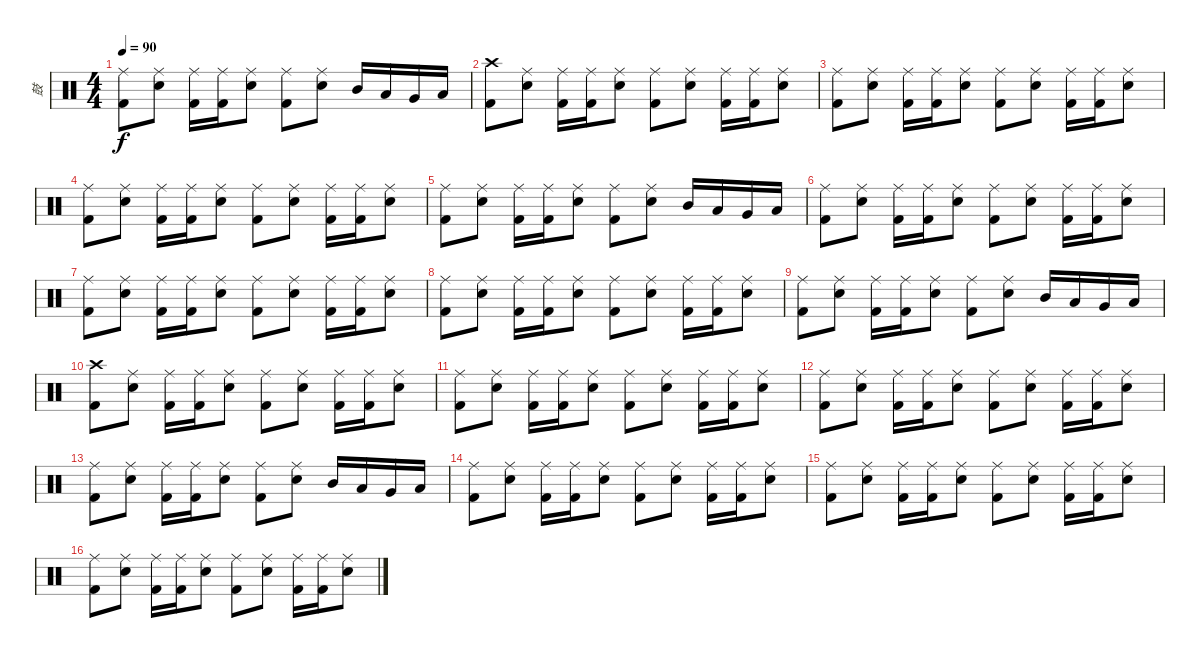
\track ("鼓" "鼓") {instrument percussion}
\staff {score}
\articulation defaults
\ts (4 4)
\tempo 90
\clef neutral
\ks c
("Kick (hit) 2" "Ride (middle)").8{dy f} ("Electric Snare (hit)" "Ride (middle)").8 ("Kick (hit) 2" "Ride (middle)").16 ("Kick (hit) 2" "Ride (middle)").16 ("Electric Snare (hit)" "Ride (middle)").8 ("Kick (hit) 2" "Ride (middle)").8 ("Electric Snare (hit)" "Ride (middle)").8 "Mid Tom (hit)".16 "Low Tom (hit)".16 "Very Low Tom (hit)".16 "Low Floor Tom (hit)".16 |
("Kick (hit) 2" "Crash high (hit)").8 ("Electric Snare (hit)" "Ride (middle)").8 ("Kick (hit) 2" "Ride (middle)").16 ("Kick (hit) 2" "Ride (middle)").16 ("Electric Snare (hit)" "Ride (middle)").8 ("Kick (hit) 2" "Ride (middle)").8 ("Electric Snare (hit)" "Ride (middle)").8 ("Kick (hit) 2" "Ride (middle)").16 ("Kick (hit) 2" "Ride (middle)").16 ("Electric Snare (hit)" "Ride (middle)").8 |
("Kick (hit) 2" "Ride (middle)").8 ("Electric Snare (hit)" "Ride (middle)").8 ("Kick (hit) 2" "Ride (middle)").16 ("Kick (hit) 2" "Ride (middle)").16 ("Electric Snare (hit)" "Ride (middle)").8 ("Kick (hit) 2" "Ride (middle)").8 ("Electric Snare (hit)" "Ride (middle)").8 ("Kick (hit) 2" "Ride (middle)").16 ("Kick (hit) 2" "Ride (middle)").16 ("Electric Snare (hit)" "Ride (middle)").8 |
("Kick (hit) 2" "Ride (middle)").8 ("Electric Snare (hit)" "Ride (middle)").8 ("Kick (hit) 2" "Ride (middle)").16 ("Kick (hit) 2" "Ride (middle)").16 ("Electric Snare (hit)" "Ride (middle)").8 ("Kick (hit) 2" "Ride (middle)").8 ("Electric Snare (hit)" "Ride (middle)").8 ("Kick (hit) 2" "Ride (middle)").16 ("Kick (hit) 2" "Ride (middle)").16 ("Electric Snare (hit)" "Ride (middle)").8 |
("Kick (hit) 2" "Ride (middle)").8 ("Electric Snare (hit)" "Ride (middle)").8 ("Kick (hit) 2" "Ride (middle)").16 ("Kick (hit) 2" "Ride (middle)").16 ("Electric Snare (hit)" "Ride (middle)").8 ("Kick (hit) 2" "Ride (middle)").8 ("Electric Snare (hit)" "Ride (middle)").8 "Mid Tom (hit)".16 "Low Tom (hit)".16 "Very Low Tom (hit)".16 "Low Floor Tom (hit)".16 |
("Kick (hit) 2" "Ride (middle)").8 ("Electric Snare (hit)" "Ride (middle)").8 ("Kick (hit) 2" "Ride (middle)").16 ("Kick (hit) 2" "Ride (middle)").16 ("Electric Snare (hit)" "Ride (middle)").8 ("Kick (hit) 2" "Ride (middle)").8 ("Electric Snare (hit)" "Ride (middle)").8 ("Kick (hit) 2" "Ride (middle)").16 ("Kick (hit) 2" "Ride (middle)").16 ("Electric Snare (hit)" "Ride (middle)").8 |
("Kick (hit) 2" "Ride (middle)").8 ("Electric Snare (hit)" "Ride (middle)").8 ("Kick (hit) 2" "Ride (middle)").16 ("Kick (hit) 2" "Ride (middle)").16 ("Electric Snare (hit)" "Ride (middle)").8 ("Kick (hit) 2" "Ride (middle)").8 ("Electric Snare (hit)" "Ride (middle)").8 ("Kick (hit) 2" "Ride (middle)").16 ("Kick (hit) 2" "Ride (middle)").16 ("Electric Snare (hit)" "Ride (middle)").8 |
("Kick (hit) 2" "Ride (middle)").8 ("Electric Snare (hit)" "Ride (middle)").8 ("Kick (hit) 2" "Ride (middle)").16 ("Kick (hit) 2" "Ride (middle)").16 ("Electric Snare (hit)" "Ride (middle)").8 ("Kick (hit) 2" "Ride (middle)").8 ("Electric Snare (hit)" "Ride (middle)").8 ("Kick (hit) 2" "Ride (middle)").16 ("Kick (hit) 2" "Ride (middle)").16 ("Electric Snare (hit)" "Ride (middle)").8 |
("Kick (hit) 2" "Ride (middle)").8 ("Electric Snare (hit)" "Ride (middle)").8 ("Kick (hit) 2" "Ride (middle)").16 ("Kick (hit) 2" "Ride (middle)").16 ("Electric Snare (hit)" "Ride (middle)").8 ("Kick (hit) 2" "Ride (middle)").8 ("Electric Snare (hit)" "Ride (middle)").8 "Mid Tom (hit)".16 "Low Tom (hit)".16 "Very Low Tom (hit)".16 "Low Floor Tom (hit)".16 |
("Kick (hit) 2" "Crash high (hit)").8 ("Electric Snare (hit)" "Ride (middle)").8 ("Kick (hit) 2" "Ride (middle)").16 ("Kick (hit) 2" "Ride (middle)").16 ("Electric Snare (hit)" "Ride (middle)").8 ("Kick (hit) 2" "Ride (middle)").8 ("Electric Snare (hit)" "Ride (middle)").8 ("Kick (hit) 2" "Ride (middle)").16 ("Kick (hit) 2" "Ride (middle)").16 ("Electric Snare (hit)" "Ride (middle)").8 |
("Kick (hit) 2" "Ride (middle)").8 ("Electric Snare (hit)" "Ride (middle)").8 ("Kick (hit) 2" "Ride (middle)").16 ("Kick (hit) 2" "Ride (middle)").16 ("Electric Snare (hit)" "Ride (middle)").8 ("Kick (hit) 2" "Ride (middle)").8 ("Electric Snare (hit)" "Ride (middle)").8 ("Kick (hit) 2" "Ride (middle)").16 ("Kick (hit) 2" "Ride (middle)").16 ("Electric Snare (hit)" "Ride (middle)").8 |
("Kick (hit) 2" "Ride (middle)").8 ("Electric Snare (hit)" "Ride (middle)").8 ("Kick (hit) 2" "Ride (middle)").16 ("Kick (hit) 2" "Ride (middle)").16 ("Electric Snare (hit)" "Ride (middle)").8 ("Kick (hit) 2" "Ride (middle)").8 ("Electric Snare (hit)" "Ride (middle)").8 ("Kick (hit) 2" "Ride (middle)").16 ("Kick (hit) 2" "Ride (middle)").16 ("Electric Snare (hit)" "Ride (middle)").8 |
("Kick (hit) 2" "Ride (middle)").8 ("Electric Snare (hit)" "Ride (middle)").8 ("Kick (hit) 2" "Ride (middle)").16 ("Kick (hit) 2" "Ride (middle)").16 ("Electric Snare (hit)" "Ride (middle)").8 ("Kick (hit) 2" "Ride (middle)").8 ("Electric Snare (hit)" "Ride (middle)").8 "Mid Tom (hit)".16 "Low Tom (hit)".16 "Very Low Tom (hit)".16 "Low Floor Tom (hit)".16 |
("Kick (hit) 2" "Ride (middle)").8 ("Electric Snare (hit)" "Ride (middle)").8 ("Kick (hit) 2" "Ride (middle)").16 ("Kick (hit) 2" "Ride (middle)").16 ("Electric Snare (hit)" "Ride (middle)").8 ("Kick (hit) 2" "Ride (middle)").8 ("Electric Snare (hit)" "Ride (middle)").8 ("Kick (hit) 2" "Ride (middle)").16 ("Kick (hit) 2" "Ride (middle)").16 ("Electric Snare (hit)" "Ride (middle)").8 |
("Kick (hit) 2" "Ride (middle)").8 ("Electric Snare (hit)" "Ride (middle)").8 ("Kick (hit) 2" "Ride (middle)").16 ("Kick (hit) 2" "Ride (middle)").16 ("Electric Snare (hit)" "Ride (middle)").8 ("Kick (hit) 2" "Ride (middle)").8 ("Electric Snare (hit)" "Ride (middle)").8 ("Kick (hit) 2" "Ride (middle)").16 ("Kick (hit) 2" "Ride (middle)").16 ("Electric Snare (hit)" "Ride (middle)").8 |
("Kick (hit) 2" "Ride (middle)").8 ("Electric Snare (hit)" "Ride (middle)").8 ("Kick (hit) 2" "Ride (middle)").16 ("Kick (hit) 2" "Ride (middle)").16 ("Electric Snare (hit)" "Ride (middle)").8 ("Kick (hit) 2" "Ride (middle)").8 ("Electric Snare (hit)" "Ride (middle)").8 ("Kick (hit) 2" "Ride (middle)").16 ("Kick (hit) 2" "Ride (middle)").16 ("Electric Snare (hit)" "Ride (middle)").8
